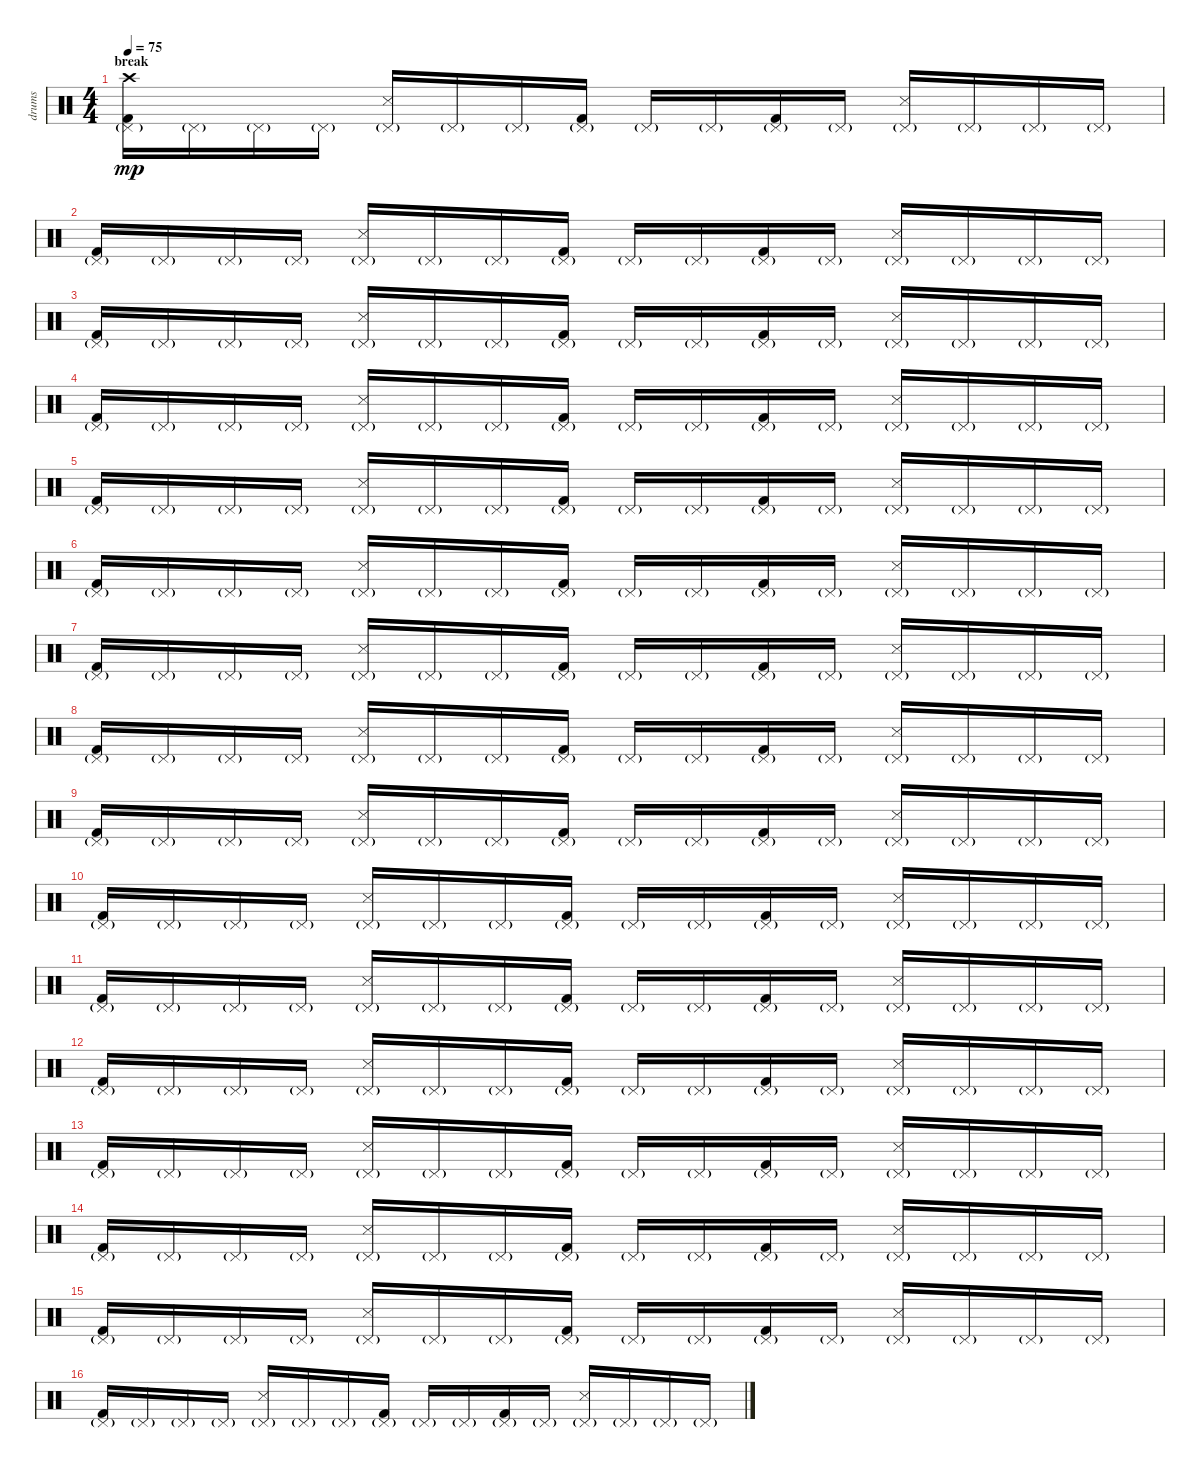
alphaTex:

\track ("drums" "drums") {instrument percussion}
\staff {score}
\articulation defaults
\ts (4 4)
\section ("" "break")
\tempo 75
\clef neutral
\ks c
("Kick (hit) 2" "Pedal Hi-Hat (hit)"{g} "Crash high (hit)").16{dy mp volume 8} "Pedal Hi-Hat (hit)"{g}.16 "Pedal Hi-Hat (hit)"{g}.16 "Pedal Hi-Hat (hit)"{g}.16 ("Snare (side stick) 3" "Pedal Hi-Hat (hit)"{g}).16 "Pedal Hi-Hat (hit)"{g}.16 "Pedal Hi-Hat (hit)"{g}.16 ("Kick (hit) 2" "Pedal Hi-Hat (hit)"{g}).16 "Pedal Hi-Hat (hit)"{g}.16 "Pedal Hi-Hat (hit)"{g}.16 ("Kick (hit) 2" "Pedal Hi-Hat (hit)"{g}).16 "Pedal Hi-Hat (hit)"{g}.16 ("Snare (side stick) 3" "Pedal Hi-Hat (hit)"{g}).16 "Pedal Hi-Hat (hit)"{g}.16 "Pedal Hi-Hat (hit)"{g}.16 "Pedal Hi-Hat (hit)"{g}.16 |
("Kick (hit) 2" "Pedal Hi-Hat (hit)"{g}).16 "Pedal Hi-Hat (hit)"{g}.16 "Pedal Hi-Hat (hit)"{g}.16 "Pedal Hi-Hat (hit)"{g}.16 ("Snare (side stick) 3" "Pedal Hi-Hat (hit)"{g}).16 "Pedal Hi-Hat (hit)"{g}.16 "Pedal Hi-Hat (hit)"{g}.16 ("Kick (hit) 2" "Pedal Hi-Hat (hit)"{g}).16 "Pedal Hi-Hat (hit)"{g}.16 "Pedal Hi-Hat (hit)"{g}.16 ("Kick (hit) 2" "Pedal Hi-Hat (hit)"{g}).16 "Pedal Hi-Hat (hit)"{g}.16 ("Snare (side stick) 3" "Pedal Hi-Hat (hit)"{g}).16 "Pedal Hi-Hat (hit)"{g}.16 "Pedal Hi-Hat (hit)"{g}.16 "Pedal Hi-Hat (hit)"{g}.16 |
("Kick (hit) 2" "Pedal Hi-Hat (hit)"{g}).16 "Pedal Hi-Hat (hit)"{g}.16 "Pedal Hi-Hat (hit)"{g}.16 "Pedal Hi-Hat (hit)"{g}.16 ("Snare (side stick) 3" "Pedal Hi-Hat (hit)"{g}).16 "Pedal Hi-Hat (hit)"{g}.16 "Pedal Hi-Hat (hit)"{g}.16 ("Kick (hit) 2" "Pedal Hi-Hat (hit)"{g}).16 "Pedal Hi-Hat (hit)"{g}.16 "Pedal Hi-Hat (hit)"{g}.16 ("Kick (hit) 2" "Pedal Hi-Hat (hit)"{g}).16 "Pedal Hi-Hat (hit)"{g}.16 ("Snare (side stick) 3" "Pedal Hi-Hat (hit)"{g}).16 "Pedal Hi-Hat (hit)"{g}.16 "Pedal Hi-Hat (hit)"{g}.16 "Pedal Hi-Hat (hit)"{g}.16 |
("Kick (hit) 2" "Pedal Hi-Hat (hit)"{g}).16 "Pedal Hi-Hat (hit)"{g}.16 "Pedal Hi-Hat (hit)"{g}.16 "Pedal Hi-Hat (hit)"{g}.16 ("Snare (side stick) 3" "Pedal Hi-Hat (hit)"{g}).16 "Pedal Hi-Hat (hit)"{g}.16 "Pedal Hi-Hat (hit)"{g}.16 ("Kick (hit) 2" "Pedal Hi-Hat (hit)"{g}).16 "Pedal Hi-Hat (hit)"{g}.16 "Pedal Hi-Hat (hit)"{g}.16 ("Kick (hit) 2" "Pedal Hi-Hat (hit)"{g}).16 "Pedal Hi-Hat (hit)"{g}.16 ("Snare (side stick) 3" "Pedal Hi-Hat (hit)"{g}).16 "Pedal Hi-Hat (hit)"{g}.16 "Pedal Hi-Hat (hit)"{g}.16 "Pedal Hi-Hat (hit)"{g}.16 |
("Kick (hit) 2" "Pedal Hi-Hat (hit)"{g}).16 "Pedal Hi-Hat (hit)"{g}.16 "Pedal Hi-Hat (hit)"{g}.16 "Pedal Hi-Hat (hit)"{g}.16 ("Snare (side stick) 3" "Pedal Hi-Hat (hit)"{g}).16 "Pedal Hi-Hat (hit)"{g}.16 "Pedal Hi-Hat (hit)"{g}.16 ("Kick (hit) 2" "Pedal Hi-Hat (hit)"{g}).16 "Pedal Hi-Hat (hit)"{g}.16 "Pedal Hi-Hat (hit)"{g}.16 ("Kick (hit) 2" "Pedal Hi-Hat (hit)"{g}).16 "Pedal Hi-Hat (hit)"{g}.16 ("Snare (side stick) 3" "Pedal Hi-Hat (hit)"{g}).16 "Pedal Hi-Hat (hit)"{g}.16 "Pedal Hi-Hat (hit)"{g}.16 "Pedal Hi-Hat (hit)"{g}.16 |
("Kick (hit) 2" "Pedal Hi-Hat (hit)"{g}).16 "Pedal Hi-Hat (hit)"{g}.16 "Pedal Hi-Hat (hit)"{g}.16 "Pedal Hi-Hat (hit)"{g}.16 ("Snare (side stick) 3" "Pedal Hi-Hat (hit)"{g}).16 "Pedal Hi-Hat (hit)"{g}.16 "Pedal Hi-Hat (hit)"{g}.16 ("Kick (hit) 2" "Pedal Hi-Hat (hit)"{g}).16 "Pedal Hi-Hat (hit)"{g}.16 "Pedal Hi-Hat (hit)"{g}.16 ("Kick (hit) 2" "Pedal Hi-Hat (hit)"{g}).16 "Pedal Hi-Hat (hit)"{g}.16 ("Snare (side stick) 3" "Pedal Hi-Hat (hit)"{g}).16 "Pedal Hi-Hat (hit)"{g}.16 "Pedal Hi-Hat (hit)"{g}.16 "Pedal Hi-Hat (hit)"{g}.16 |
("Kick (hit) 2" "Pedal Hi-Hat (hit)"{g}).16 "Pedal Hi-Hat (hit)"{g}.16 "Pedal Hi-Hat (hit)"{g}.16 "Pedal Hi-Hat (hit)"{g}.16 ("Snare (side stick) 3" "Pedal Hi-Hat (hit)"{g}).16 "Pedal Hi-Hat (hit)"{g}.16 "Pedal Hi-Hat (hit)"{g}.16 ("Kick (hit) 2" "Pedal Hi-Hat (hit)"{g}).16 "Pedal Hi-Hat (hit)"{g}.16 "Pedal Hi-Hat (hit)"{g}.16 ("Kick (hit) 2" "Pedal Hi-Hat (hit)"{g}).16 "Pedal Hi-Hat (hit)"{g}.16 ("Snare (side stick) 3" "Pedal Hi-Hat (hit)"{g}).16 "Pedal Hi-Hat (hit)"{g}.16 "Pedal Hi-Hat (hit)"{g}.16 "Pedal Hi-Hat (hit)"{g}.16 |
("Kick (hit) 2" "Pedal Hi-Hat (hit)"{g}).16 "Pedal Hi-Hat (hit)"{g}.16 "Pedal Hi-Hat (hit)"{g}.16 "Pedal Hi-Hat (hit)"{g}.16 ("Snare (side stick) 3" "Pedal Hi-Hat (hit)"{g}).16 "Pedal Hi-Hat (hit)"{g}.16 "Pedal Hi-Hat (hit)"{g}.16 ("Kick (hit) 2" "Pedal Hi-Hat (hit)"{g}).16 "Pedal Hi-Hat (hit)"{g}.16 "Pedal Hi-Hat (hit)"{g}.16 ("Kick (hit) 2" "Pedal Hi-Hat (hit)"{g}).16 "Pedal Hi-Hat (hit)"{g}.16 ("Snare (side stick) 3" "Pedal Hi-Hat (hit)"{g}).16 "Pedal Hi-Hat (hit)"{g}.16 "Pedal Hi-Hat (hit)"{g}.16 "Pedal Hi-Hat (hit)"{g}.16 |
("Kick (hit) 2" "Pedal Hi-Hat (hit)"{g}).16 "Pedal Hi-Hat (hit)"{g}.16 "Pedal Hi-Hat (hit)"{g}.16 "Pedal Hi-Hat (hit)"{g}.16 ("Snare (side stick) 3" "Pedal Hi-Hat (hit)"{g}).16 "Pedal Hi-Hat (hit)"{g}.16 "Pedal Hi-Hat (hit)"{g}.16 ("Kick (hit) 2" "Pedal Hi-Hat (hit)"{g}).16 "Pedal Hi-Hat (hit)"{g}.16 "Pedal Hi-Hat (hit)"{g}.16 ("Kick (hit) 2" "Pedal Hi-Hat (hit)"{g}).16 "Pedal Hi-Hat (hit)"{g}.16 ("Snare (side stick) 3" "Pedal Hi-Hat (hit)"{g}).16 "Pedal Hi-Hat (hit)"{g}.16 "Pedal Hi-Hat (hit)"{g}.16 "Pedal Hi-Hat (hit)"{g}.16 |
("Kick (hit) 2" "Pedal Hi-Hat (hit)"{g}).16 "Pedal Hi-Hat (hit)"{g}.16 "Pedal Hi-Hat (hit)"{g}.16 "Pedal Hi-Hat (hit)"{g}.16 ("Snare (side stick) 3" "Pedal Hi-Hat (hit)"{g}).16 "Pedal Hi-Hat (hit)"{g}.16 "Pedal Hi-Hat (hit)"{g}.16 ("Kick (hit) 2" "Pedal Hi-Hat (hit)"{g}).16 "Pedal Hi-Hat (hit)"{g}.16 "Pedal Hi-Hat (hit)"{g}.16 ("Kick (hit) 2" "Pedal Hi-Hat (hit)"{g}).16 "Pedal Hi-Hat (hit)"{g}.16 ("Snare (side stick) 3" "Pedal Hi-Hat (hit)"{g}).16 "Pedal Hi-Hat (hit)"{g}.16 "Pedal Hi-Hat (hit)"{g}.16 "Pedal Hi-Hat (hit)"{g}.16 |
("Kick (hit) 2" "Pedal Hi-Hat (hit)"{g}).16 "Pedal Hi-Hat (hit)"{g}.16 "Pedal Hi-Hat (hit)"{g}.16 "Pedal Hi-Hat (hit)"{g}.16 ("Snare (side stick) 3" "Pedal Hi-Hat (hit)"{g}).16 "Pedal Hi-Hat (hit)"{g}.16 "Pedal Hi-Hat (hit)"{g}.16 ("Kick (hit) 2" "Pedal Hi-Hat (hit)"{g}).16 "Pedal Hi-Hat (hit)"{g}.16 "Pedal Hi-Hat (hit)"{g}.16 ("Kick (hit) 2" "Pedal Hi-Hat (hit)"{g}).16 "Pedal Hi-Hat (hit)"{g}.16 ("Snare (side stick) 3" "Pedal Hi-Hat (hit)"{g}).16 "Pedal Hi-Hat (hit)"{g}.16 "Pedal Hi-Hat (hit)"{g}.16 "Pedal Hi-Hat (hit)"{g}.16 |
("Kick (hit) 2" "Pedal Hi-Hat (hit)"{g}).16 "Pedal Hi-Hat (hit)"{g}.16 "Pedal Hi-Hat (hit)"{g}.16 "Pedal Hi-Hat (hit)"{g}.16 ("Snare (side stick) 3" "Pedal Hi-Hat (hit)"{g}).16 "Pedal Hi-Hat (hit)"{g}.16 "Pedal Hi-Hat (hit)"{g}.16 ("Kick (hit) 2" "Pedal Hi-Hat (hit)"{g}).16 "Pedal Hi-Hat (hit)"{g}.16 "Pedal Hi-Hat (hit)"{g}.16 ("Kick (hit) 2" "Pedal Hi-Hat (hit)"{g}).16 "Pedal Hi-Hat (hit)"{g}.16 ("Snare (side stick) 3" "Pedal Hi-Hat (hit)"{g}).16 "Pedal Hi-Hat (hit)"{g}.16 "Pedal Hi-Hat (hit)"{g}.16 "Pedal Hi-Hat (hit)"{g}.16 |
("Kick (hit) 2" "Pedal Hi-Hat (hit)"{g}).16 "Pedal Hi-Hat (hit)"{g}.16 "Pedal Hi-Hat (hit)"{g}.16 "Pedal Hi-Hat (hit)"{g}.16 ("Snare (side stick) 3" "Pedal Hi-Hat (hit)"{g}).16 "Pedal Hi-Hat (hit)"{g}.16 "Pedal Hi-Hat (hit)"{g}.16 ("Kick (hit) 2" "Pedal Hi-Hat (hit)"{g}).16 "Pedal Hi-Hat (hit)"{g}.16 "Pedal Hi-Hat (hit)"{g}.16 ("Kick (hit) 2" "Pedal Hi-Hat (hit)"{g}).16 "Pedal Hi-Hat (hit)"{g}.16 ("Snare (side stick) 3" "Pedal Hi-Hat (hit)"{g}).16 "Pedal Hi-Hat (hit)"{g}.16 "Pedal Hi-Hat (hit)"{g}.16 "Pedal Hi-Hat (hit)"{g}.16 |
("Kick (hit) 2" "Pedal Hi-Hat (hit)"{g}).16 "Pedal Hi-Hat (hit)"{g}.16 "Pedal Hi-Hat (hit)"{g}.16 "Pedal Hi-Hat (hit)"{g}.16 ("Snare (side stick) 3" "Pedal Hi-Hat (hit)"{g}).16 "Pedal Hi-Hat (hit)"{g}.16 "Pedal Hi-Hat (hit)"{g}.16 ("Kick (hit) 2" "Pedal Hi-Hat (hit)"{g}).16 "Pedal Hi-Hat (hit)"{g}.16 "Pedal Hi-Hat (hit)"{g}.16 ("Kick (hit) 2" "Pedal Hi-Hat (hit)"{g}).16 "Pedal Hi-Hat (hit)"{g}.16 ("Snare (side stick) 3" "Pedal Hi-Hat (hit)"{g}).16 "Pedal Hi-Hat (hit)"{g}.16 "Pedal Hi-Hat (hit)"{g}.16 "Pedal Hi-Hat (hit)"{g}.16 |
("Kick (hit) 2" "Pedal Hi-Hat (hit)"{g}).16 "Pedal Hi-Hat (hit)"{g}.16 "Pedal Hi-Hat (hit)"{g}.16 "Pedal Hi-Hat (hit)"{g}.16 ("Snare (side stick) 3" "Pedal Hi-Hat (hit)"{g}).16 "Pedal Hi-Hat (hit)"{g}.16 "Pedal Hi-Hat (hit)"{g}.16 ("Kick (hit) 2" "Pedal Hi-Hat (hit)"{g}).16 "Pedal Hi-Hat (hit)"{g}.16 "Pedal Hi-Hat (hit)"{g}.16 ("Kick (hit) 2" "Pedal Hi-Hat (hit)"{g}).16 "Pedal Hi-Hat (hit)"{g}.16 ("Snare (side stick) 3" "Pedal Hi-Hat (hit)"{g}).16 "Pedal Hi-Hat (hit)"{g}.16 "Pedal Hi-Hat (hit)"{g}.16 "Pedal Hi-Hat (hit)"{g}.16 |
("Kick (hit) 2" "Pedal Hi-Hat (hit)"{g}).16 "Pedal Hi-Hat (hit)"{g}.16 "Pedal Hi-Hat (hit)"{g}.16 "Pedal Hi-Hat (hit)"{g}.16 ("Snare (side stick) 3" "Pedal Hi-Hat (hit)"{g}).16 "Pedal Hi-Hat (hit)"{g}.16 "Pedal Hi-Hat (hit)"{g}.16 ("Kick (hit) 2" "Pedal Hi-Hat (hit)"{g}).16 "Pedal Hi-Hat (hit)"{g}.16 "Pedal Hi-Hat (hit)"{g}.16 ("Kick (hit) 2" "Pedal Hi-Hat (hit)"{g}).16 "Pedal Hi-Hat (hit)"{g}.16 ("Snare (side stick) 3" "Pedal Hi-Hat (hit)"{g}).16 "Pedal Hi-Hat (hit)"{g}.16 "Pedal Hi-Hat (hit)"{g}.16 "Pedal Hi-Hat (hit)"{g}.16
